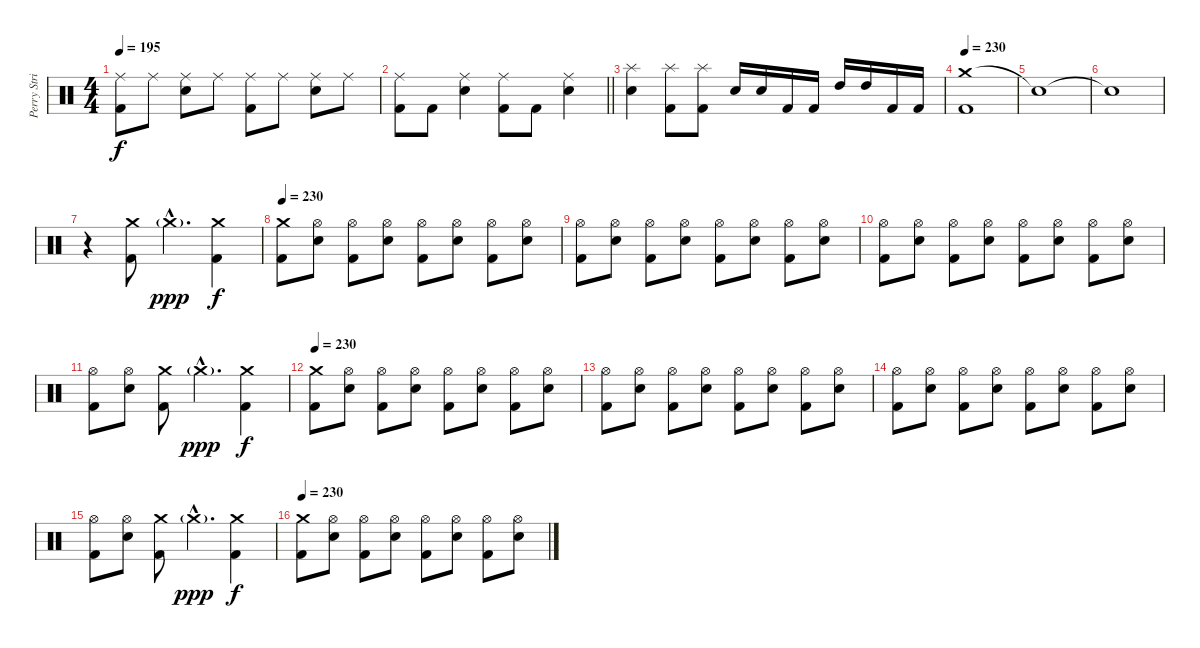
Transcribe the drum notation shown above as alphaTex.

\track ("Perry Strickland" "Perry Stri") {instrument percussion}
\staff {score}
\articulation defaults
\ts (4 4)
\tempo 195
\clef neutral
\ks c
("Ride (middle)" "Kick (hit) 2").8{dy f} "Ride (middle)".8 ("Ride (middle)" "Electric Snare (hit)").8 "Ride (middle)".8 ("Ride (middle)" "Kick (hit) 2").8 "Ride (middle)".8 ("Ride (middle)" "Electric Snare (hit)").8 "Ride (middle)".8 |
\barLineRight lightlight
("Ride (middle)" "Kick (hit) 2").8 "Kick (hit) 2".8 ("Ride (middle)" "Electric Snare (hit)").4 ("Ride (middle)" "Kick (hit) 2").8 "Kick (hit) 2".8 ("Ride (middle)" "Electric Snare (hit)").4 |
("Splash (hit)" "Electric Snare (hit)").4 ("Splash (hit)" "Kick (hit) 2").8 ("Splash (hit)" "Kick (hit) 2").8 "Electric Snare (hit)".16 "Electric Snare (hit)".16 "Kick (hit) 2".16 "Kick (hit) 2".16 "High Tom (hit)".16 "High Tom (hit)".16 "Kick (hit) 2".16 "Kick (hit) 2".16 |
\tempo 230
("Crash medium (hit)" "Kick (hit) 2").1 |
"Snare (hit)"{t}.1 |
"Snare (hit)"{t}.1 |
r.4 ("Crash medium (hit)" "Kick (hit) 2").8 "Crash medium (hit)"{g hac}.4{d dy ppp} ("Crash medium (hit)" "Kick (hit) 2").4{dy f} |
\tempo 230
("Crash medium (hit)" "Kick (hit) 2").8 ("Hi-Hat (open)" "Electric Snare (hit)").8 ("Hi-Hat (open)" "Kick (hit) 2").8 ("Hi-Hat (open)" "Electric Snare (hit)").8 ("Hi-Hat (open)" "Kick (hit) 2").8 ("Hi-Hat (open)" "Electric Snare (hit)").8 ("Hi-Hat (open)" "Kick (hit) 2").8 ("Hi-Hat (open)" "Electric Snare (hit)").8 |
("Hi-Hat (open)" "Kick (hit) 2").8 ("Hi-Hat (open)" "Electric Snare (hit)").8 ("Hi-Hat (open)" "Kick (hit) 2").8 ("Hi-Hat (open)" "Electric Snare (hit)").8 ("Hi-Hat (open)" "Kick (hit) 2").8 ("Hi-Hat (open)" "Electric Snare (hit)").8 ("Hi-Hat (open)" "Kick (hit) 2").8 ("Hi-Hat (open)" "Electric Snare (hit)").8 |
("Hi-Hat (open)" "Kick (hit) 2").8 ("Hi-Hat (open)" "Electric Snare (hit)").8 ("Hi-Hat (open)" "Kick (hit) 2").8 ("Hi-Hat (open)" "Electric Snare (hit)").8 ("Hi-Hat (open)" "Kick (hit) 2").8 ("Hi-Hat (open)" "Electric Snare (hit)").8 ("Hi-Hat (open)" "Kick (hit) 2").8 ("Hi-Hat (open)" "Electric Snare (hit)").8 |
("Hi-Hat (open)" "Kick (hit) 2").8 ("Hi-Hat (open)" "Electric Snare (hit)").8 ("Crash medium (hit)" "Kick (hit) 2").8 "Crash medium (hit)"{g hac}.4{d dy ppp} ("Crash medium (hit)" "Kick (hit) 2").4{dy f} |
\tempo 230
("Crash medium (hit)" "Kick (hit) 2").8 ("Hi-Hat (open)" "Electric Snare (hit)").8 ("Hi-Hat (open)" "Kick (hit) 2").8 ("Hi-Hat (open)" "Electric Snare (hit)").8 ("Hi-Hat (open)" "Kick (hit) 2").8 ("Hi-Hat (open)" "Electric Snare (hit)").8 ("Hi-Hat (open)" "Kick (hit) 2").8 ("Hi-Hat (open)" "Electric Snare (hit)").8 |
("Hi-Hat (open)" "Kick (hit) 2").8 ("Hi-Hat (open)" "Electric Snare (hit)").8 ("Hi-Hat (open)" "Kick (hit) 2").8 ("Hi-Hat (open)" "Electric Snare (hit)").8 ("Hi-Hat (open)" "Kick (hit) 2").8 ("Hi-Hat (open)" "Electric Snare (hit)").8 ("Hi-Hat (open)" "Kick (hit) 2").8 ("Hi-Hat (open)" "Electric Snare (hit)").8 |
("Hi-Hat (open)" "Kick (hit) 2").8 ("Hi-Hat (open)" "Electric Snare (hit)").8 ("Hi-Hat (open)" "Kick (hit) 2").8 ("Hi-Hat (open)" "Electric Snare (hit)").8 ("Hi-Hat (open)" "Kick (hit) 2").8 ("Hi-Hat (open)" "Electric Snare (hit)").8 ("Hi-Hat (open)" "Kick (hit) 2").8 ("Hi-Hat (open)" "Electric Snare (hit)").8 |
("Hi-Hat (open)" "Kick (hit) 2").8 ("Hi-Hat (open)" "Electric Snare (hit)").8 ("Crash medium (hit)" "Kick (hit) 2").8 "Crash medium (hit)"{g hac}.4{d dy ppp} ("Crash medium (hit)" "Kick (hit) 2").4{dy f} |
\tempo 230
("Crash medium (hit)" "Kick (hit) 2").8 ("Hi-Hat (open)" "Electric Snare (hit)").8 ("Hi-Hat (open)" "Kick (hit) 2").8 ("Hi-Hat (open)" "Electric Snare (hit)").8 ("Hi-Hat (open)" "Kick (hit) 2").8 ("Hi-Hat (open)" "Electric Snare (hit)").8 ("Hi-Hat (open)" "Kick (hit) 2").8 ("Hi-Hat (open)" "Electric Snare (hit)").8
